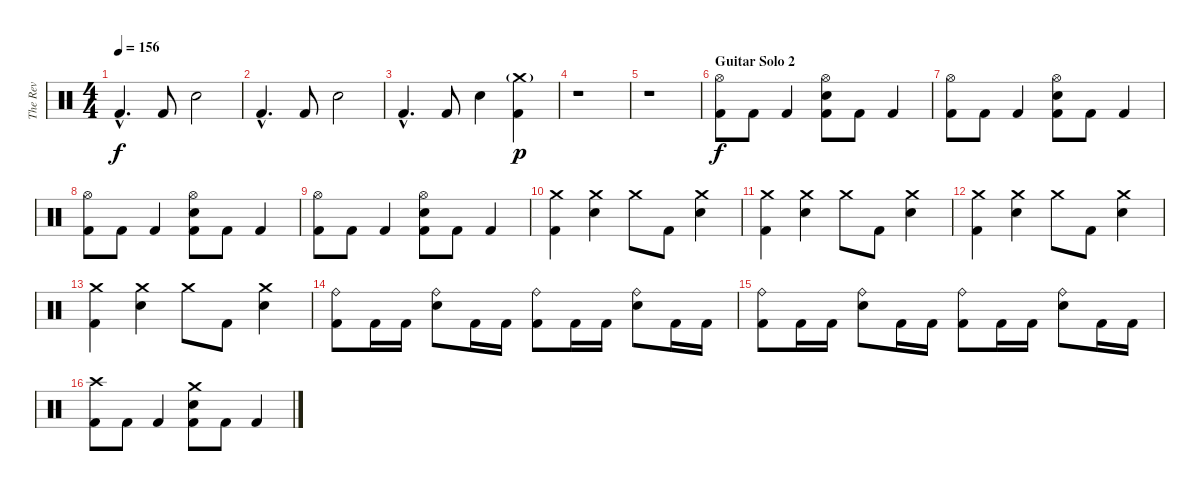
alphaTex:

\track ("The Rev" "The Rev") {instrument percussion}
\staff {score}
\articulation defaults
\ts (4 4)
\tempo 156
\clef neutral
\ks c "Kick (hit) 2"{hac}.4{d dy f} "Kick (hit) 2".8 "Electric Snare (hit)".2
|
"Kick (hit) 2"{hac}.4{d} "Kick (hit) 2".8 "Electric Snare (hit)".2 |
"Kick (hit) 2"{hac}.4{d} "Kick (hit) 2".8 "Electric Snare (hit)".4 ("Crash medium (hit)"{g} "Kick (hit) 2").4{dy p} |
r.1 |
r.1 |
\section ("" "Guitar Solo 2")
("Hi-Hat (open)" "Kick (hit) 2").8{dy f} "Kick (hit) 2".8 "Kick (hit) 2".4 ("Hi-Hat (open)" "Electric Snare (hit)" "Kick (hit) 2").8 "Kick (hit) 2".8 "Kick (hit) 2".4 |
("Hi-Hat (open)" "Kick (hit) 2").8 "Kick (hit) 2".8 "Kick (hit) 2".4 ("Hi-Hat (open)" "Electric Snare (hit)" "Kick (hit) 2").8 "Kick (hit) 2".8 "Kick (hit) 2".4 |
("Hi-Hat (open)" "Kick (hit) 2").8 "Kick (hit) 2".8 "Kick (hit) 2".4 ("Hi-Hat (open)" "Electric Snare (hit)" "Kick (hit) 2").8 "Kick (hit) 2".8 "Kick (hit) 2".4 |
("Hi-Hat (open)" "Kick (hit) 2").8 "Kick (hit) 2".8 "Kick (hit) 2".4 ("Hi-Hat (open)" "Electric Snare (hit)" "Kick (hit) 2").8 "Kick (hit) 2".8 "Kick (hit) 2".4 |
("Crash medium (hit)" "Kick (hit) 2").4 ("Crash medium (hit)" "Electric Snare (hit)").4 "Crash medium (hit)".8 "Kick (hit) 2".8 ("Crash medium (hit)" "Electric Snare (hit)").4 |
("Crash medium (hit)" "Kick (hit) 2").4 ("Crash medium (hit)" "Electric Snare (hit)").4 "Crash medium (hit)".8 "Kick (hit) 2".8 ("Crash medium (hit)" "Electric Snare (hit)").4 |
("Crash medium (hit)" "Kick (hit) 2").4 ("Crash medium (hit)" "Electric Snare (hit)").4 "Crash medium (hit)".8 "Kick (hit) 2".8 ("Crash medium (hit)" "Electric Snare (hit)").4 |
("Crash medium (hit)" "Kick (hit) 2").4 ("Crash medium (hit)" "Electric Snare (hit)").4 "Crash medium (hit)".8 "Kick (hit) 2".8 ("Crash medium (hit)" "Electric Snare (hit)").4 |
("Ride (bell)" "Kick (hit) 2").8 "Kick (hit) 2".16 "Kick (hit) 2".16 ("Ride (bell)" "Electric Snare (hit)").8 "Kick (hit) 2".16 "Kick (hit) 2".16 ("Ride (bell)" "Kick (hit) 2").8 "Kick (hit) 2".16 "Kick (hit) 2".16 ("Ride (bell)" "Electric Snare (hit)").8 "Kick (hit) 2".16 "Kick (hit) 2".16 |
("Ride (bell)" "Kick (hit) 2").8 "Kick (hit) 2".16 "Kick (hit) 2".16 ("Ride (bell)" "Electric Snare (hit)").8 "Kick (hit) 2".16 "Kick (hit) 2".16 ("Ride (bell)" "Kick (hit) 2").8 "Kick (hit) 2".16 "Kick (hit) 2".16 ("Ride (bell)" "Electric Snare (hit)").8 "Kick (hit) 2".16 "Kick (hit) 2".16 |
("Crash high (hit)" "Kick (hit) 2").8 "Kick (hit) 2".8 "Kick (hit) 2".4 ("Crash medium (hit)" "Electric Snare (hit)" "Kick (hit) 2").8 "Kick (hit) 2".8 "Kick (hit) 2".4
